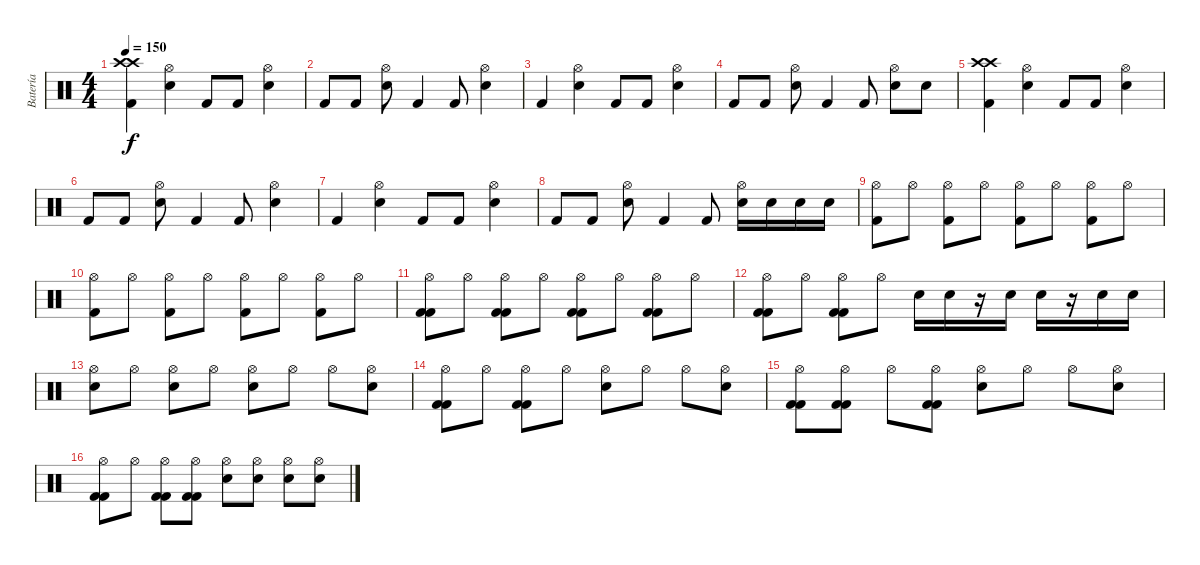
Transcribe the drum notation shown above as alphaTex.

\track ("Batería" "Batería") {instrument percussion}
\staff {score}
\articulation defaults
\ts (4 4)
\tempo 150
\clef neutral
\ks c
("Crash high (hit)" "Crash high (hit)" "Kick (hit) 2").4{dy f} ("Snare (hit) 2" "Hi-Hat (open)").4 "Kick (hit) 2".8 "Kick (hit) 2".8 ("Snare (hit) 2" "Hi-Hat (open)").4 |
"Kick (hit) 2".8 "Kick (hit) 2".8 ("Snare (hit) 2" "Hi-Hat (open)").8 "Kick (hit) 2".4 "Kick (hit) 2".8 ("Snare (hit) 2" "Hi-Hat (open)").4 |
"Kick (hit) 2".4 ("Snare (hit) 2" "Hi-Hat (open)").4 "Kick (hit) 2".8 "Kick (hit) 2".8 ("Snare (hit) 2" "Hi-Hat (open)").4 |
"Kick (hit) 2".8 "Kick (hit) 2".8 ("Snare (hit) 2" "Hi-Hat (open)").8 "Kick (hit) 2".4 "Kick (hit) 2".8 ("Snare (hit) 2" "Hi-Hat (open)").8 "Snare (hit) 2".8 |
("Crash high (hit)" "Crash high (hit)" "Kick (hit) 2").4 ("Snare (hit) 2" "Hi-Hat (open)").4 "Kick (hit) 2".8 "Kick (hit) 2".8 ("Snare (hit) 2" "Hi-Hat (open)").4 |
"Kick (hit) 2".8 "Kick (hit) 2".8 ("Snare (hit) 2" "Hi-Hat (open)").8 "Kick (hit) 2".4 "Kick (hit) 2".8 ("Snare (hit) 2" "Hi-Hat (open)").4 |
"Kick (hit) 2".4 ("Snare (hit) 2" "Hi-Hat (open)").4 "Kick (hit) 2".8 "Kick (hit) 2".8 ("Snare (hit) 2" "Hi-Hat (open)").4 |
"Kick (hit) 2".8 "Kick (hit) 2".8 ("Snare (hit) 2" "Hi-Hat (open)").8 "Kick (hit) 2".4 "Kick (hit) 2".8 ("Snare (hit) 2" "Hi-Hat (open)").16 "Snare (hit) 2".16 "Snare (hit) 2".16 "Snare (hit) 2".16 |
("Kick (hit) 2" "Hi-Hat (open)").8 "Hi-Hat (open)".8 ("Kick (hit) 2" "Hi-Hat (open)").8 "Hi-Hat (open)".8 ("Kick (hit) 2" "Hi-Hat (open)").8 "Hi-Hat (open)".8 ("Kick (hit) 2" "Hi-Hat (open)").8 "Hi-Hat (open)".8 |
("Kick (hit) 2" "Hi-Hat (open)").8 "Hi-Hat (open)".8 ("Kick (hit) 2" "Hi-Hat (open)").8 "Hi-Hat (open)".8 ("Kick (hit) 2" "Hi-Hat (open)").8 "Hi-Hat (open)".8 ("Kick (hit) 2" "Hi-Hat (open)").8 "Hi-Hat (open)".8 |
("Kick (hit) 2" "Kick (hit) 2" "Hi-Hat (open)").8 "Hi-Hat (open)".8 ("Kick (hit) 2" "Kick (hit) 2" "Hi-Hat (open)").8 "Hi-Hat (open)".8 ("Kick (hit) 2" "Kick (hit) 2" "Hi-Hat (open)").8 "Hi-Hat (open)".8 ("Kick (hit) 2" "Kick (hit) 2" "Hi-Hat (open)").8 "Hi-Hat (open)".8 |
("Kick (hit) 2" "Kick (hit) 2" "Hi-Hat (open)").8 "Hi-Hat (open)".8 ("Kick (hit) 2" "Kick (hit) 2" "Hi-Hat (open)").8 "Hi-Hat (open)".8 "Snare (hit) 2".16 "Snare (hit) 2".16 r.16 "Snare (hit) 2".16 "Snare (hit) 2".16 r.16 "Snare (hit) 2".16 "Snare (hit) 2".16 |
("Snare (hit) 2" "Hi-Hat (open)").8 "Hi-Hat (open)".8 ("Snare (hit) 2" "Hi-Hat (open)").8 "Hi-Hat (open)".8 ("Snare (hit) 2" "Hi-Hat (open)").8 "Hi-Hat (open)".8 "Hi-Hat (open)".8 ("Snare (hit) 2" "Hi-Hat (open)").8 |
("Kick (hit) 2" "Kick (hit) 2" "Hi-Hat (open)").8 "Hi-Hat (open)".8 ("Kick (hit) 2" "Kick (hit) 2" "Hi-Hat (open)").8 "Hi-Hat (open)".8 ("Snare (hit) 2" "Hi-Hat (open)").8 "Hi-Hat (open)".8 "Hi-Hat (open)".8 ("Snare (hit) 2" "Hi-Hat (open)").8 |
("Kick (hit) 2" "Kick (hit) 2" "Hi-Hat (open)").8 ("Kick (hit) 2" "Kick (hit) 2" "Hi-Hat (open)").8 "Hi-Hat (open)".8 ("Kick (hit) 2" "Kick (hit) 2" "Hi-Hat (open)").8 ("Snare (hit) 2" "Hi-Hat (open)").8 "Hi-Hat (open)".8 "Hi-Hat (open)".8 ("Snare (hit) 2" "Hi-Hat (open)").8 |
("Kick (hit) 2" "Kick (hit) 2" "Hi-Hat (open)").8 "Hi-Hat (open)".8 ("Kick (hit) 2" "Kick (hit) 2" "Hi-Hat (open)").8 ("Kick (hit) 2" "Kick (hit) 2" "Hi-Hat (open)").8 ("Snare (hit) 2" "Hi-Hat (open)").8 ("Snare (hit) 2" "Hi-Hat (open)").8 ("Snare (hit) 2" "Hi-Hat (open)").8 ("Snare (hit) 2" "Hi-Hat (open)").8
